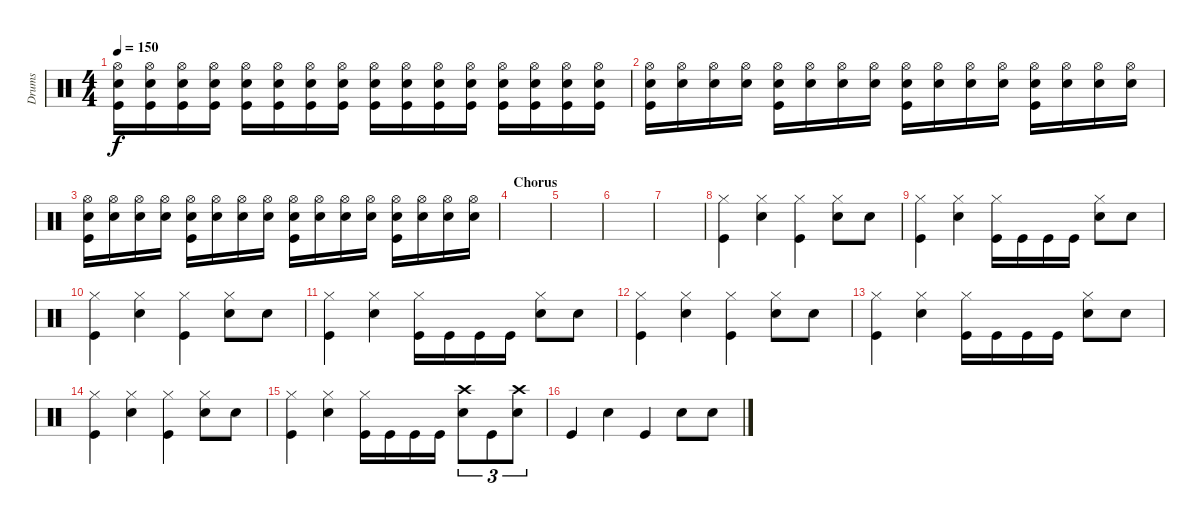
\track ("Drums" "Drums") {instrument percussion}
\staff {score}
\articulation defaults
\ts (4 4)
\tempo 150
\clef neutral
\ks c
("Kick (hit)" "Electric Snare (hit)" "Hi-Hat (open)").16{dy f} ("Kick (hit)" "Electric Snare (hit)" "Hi-Hat (open)").16 ("Kick (hit)" "Electric Snare (hit)" "Hi-Hat (open)").16 ("Kick (hit)" "Electric Snare (hit)" "Hi-Hat (open)").16 ("Kick (hit)" "Electric Snare (hit)" "Hi-Hat (open)").16 ("Kick (hit)" "Electric Snare (hit)" "Hi-Hat (open)").16 ("Kick (hit)" "Electric Snare (hit)" "Hi-Hat (open)").16 ("Kick (hit)" "Electric Snare (hit)" "Hi-Hat (open)").16 ("Kick (hit)" "Electric Snare (hit)" "Hi-Hat (open)").16 ("Kick (hit)" "Electric Snare (hit)" "Hi-Hat (open)").16 ("Kick (hit)" "Electric Snare (hit)" "Hi-Hat (open)").16 ("Kick (hit)" "Electric Snare (hit)" "Hi-Hat (open)").16 ("Kick (hit)" "Electric Snare (hit)" "Hi-Hat (open)").16 ("Kick (hit)" "Electric Snare (hit)" "Hi-Hat (open)").16 ("Kick (hit)" "Electric Snare (hit)" "Hi-Hat (open)").16 ("Kick (hit)" "Electric Snare (hit)" "Hi-Hat (open)").16 |
("Kick (hit)" "Electric Snare (hit)" "Hi-Hat (open)").16 ("Electric Snare (hit)" "Hi-Hat (open)").16 ("Electric Snare (hit)" "Hi-Hat (open)").16 ("Electric Snare (hit)" "Hi-Hat (open)").16 ("Kick (hit)" "Electric Snare (hit)" "Hi-Hat (open)").16 ("Electric Snare (hit)" "Hi-Hat (open)").16 ("Electric Snare (hit)" "Hi-Hat (open)").16 ("Electric Snare (hit)" "Hi-Hat (open)").16 ("Kick (hit)" "Electric Snare (hit)" "Hi-Hat (open)").16 ("Electric Snare (hit)" "Hi-Hat (open)").16 ("Electric Snare (hit)" "Hi-Hat (open)").16 ("Electric Snare (hit)" "Hi-Hat (open)").16 ("Kick (hit)" "Electric Snare (hit)" "Hi-Hat (open)").16 ("Electric Snare (hit)" "Hi-Hat (open)").16 ("Electric Snare (hit)" "Hi-Hat (open)").16 ("Electric Snare (hit)" "Hi-Hat (open)").16 |
("Kick (hit)" "Electric Snare (hit)" "Hi-Hat (open)").16 ("Electric Snare (hit)" "Hi-Hat (open)").16 ("Electric Snare (hit)" "Hi-Hat (open)").16 ("Electric Snare (hit)" "Hi-Hat (open)").16 ("Kick (hit)" "Electric Snare (hit)" "Hi-Hat (open)").16 ("Electric Snare (hit)" "Hi-Hat (open)").16 ("Electric Snare (hit)" "Hi-Hat (open)").16 ("Electric Snare (hit)" "Hi-Hat (open)").16 ("Kick (hit)" "Electric Snare (hit)" "Hi-Hat (open)").16 ("Electric Snare (hit)" "Hi-Hat (open)").16 ("Electric Snare (hit)" "Hi-Hat (open)").16 ("Electric Snare (hit)" "Hi-Hat (open)").16 ("Kick (hit)" "Electric Snare (hit)" "Hi-Hat (open)").16 ("Electric Snare (hit)" "Hi-Hat (open)").16 ("Electric Snare (hit)" "Hi-Hat (open)").16 ("Electric Snare (hit)" "Hi-Hat (open)").16 |
\section ("" "Chorus")
|
|
|
|
("Kick (hit)" "Hi-Hat (closed)").4 ("Electric Snare (hit)" "Hi-Hat (closed)").4 ("Kick (hit)" "Hi-Hat (closed)").4 ("Electric Snare (hit)" "Hi-Hat (closed)").8 "Electric Snare (hit)".8 |
("Kick (hit)" "Hi-Hat (closed)").4 ("Electric Snare (hit)" "Hi-Hat (closed)").4 ("Kick (hit)" "Hi-Hat (closed)").16 "Kick (hit)".16 "Kick (hit)".16 "Kick (hit)".16 ("Electric Snare (hit)" "Hi-Hat (closed)").8 "Electric Snare (hit)".8 |
("Kick (hit)" "Hi-Hat (closed)").4 ("Electric Snare (hit)" "Hi-Hat (closed)").4 ("Kick (hit)" "Hi-Hat (closed)").4 ("Electric Snare (hit)" "Hi-Hat (closed)").8 "Electric Snare (hit)".8 |
("Kick (hit)" "Hi-Hat (closed)").4 ("Electric Snare (hit)" "Hi-Hat (closed)").4 ("Kick (hit)" "Hi-Hat (closed)").16 "Kick (hit)".16 "Kick (hit)".16 "Kick (hit)".16 ("Electric Snare (hit)" "Hi-Hat (closed)").8 "Electric Snare (hit)".8 |
("Kick (hit)" "Hi-Hat (closed)").4 ("Electric Snare (hit)" "Hi-Hat (closed)").4 ("Kick (hit)" "Hi-Hat (closed)").4 ("Electric Snare (hit)" "Hi-Hat (closed)").8 "Electric Snare (hit)".8 |
("Kick (hit)" "Hi-Hat (closed)").4 ("Electric Snare (hit)" "Hi-Hat (closed)").4 ("Kick (hit)" "Hi-Hat (closed)").16 "Kick (hit)".16 "Kick (hit)".16 "Kick (hit)".16 ("Electric Snare (hit)" "Hi-Hat (closed)").8 "Electric Snare (hit)".8 |
("Kick (hit)" "Hi-Hat (closed)").4 ("Electric Snare (hit)" "Hi-Hat (closed)").4 ("Kick (hit)" "Hi-Hat (closed)").4 ("Electric Snare (hit)" "Hi-Hat (closed)").8 "Electric Snare (hit)".8 |
("Kick (hit)" "Hi-Hat (closed)").4 ("Electric Snare (hit)" "Hi-Hat (closed)").4 ("Kick (hit)" "Hi-Hat (closed)").16 "Kick (hit)".16 "Kick (hit)".16 "Kick (hit)".16 ("Electric Snare (hit)" "Crash high (hit)").8{tu (3 2)} "Kick (hit)".8{tu (3 2)} ("Electric Snare (hit)" "Crash high (hit)").8{tu (3 2)} |
"Kick (hit)".4 "Electric Snare (hit)".4 "Kick (hit)".4 "Electric Snare (hit)".8 "Electric Snare (hit)".8
